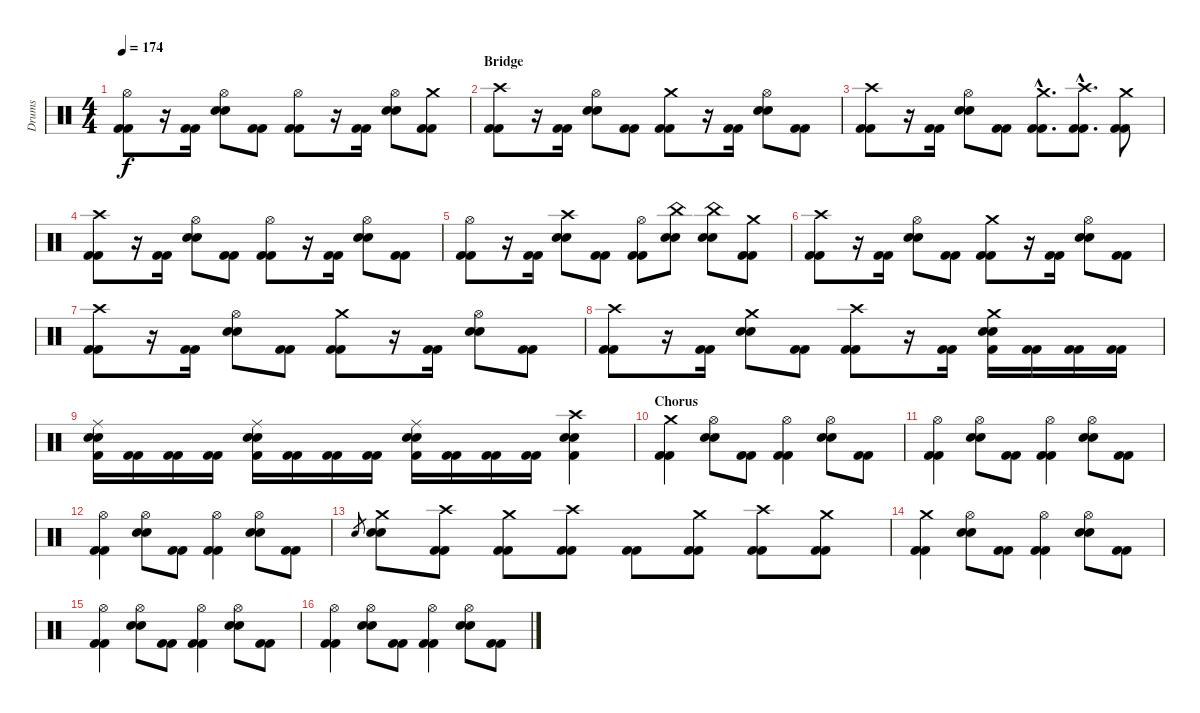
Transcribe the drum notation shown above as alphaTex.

\track ("Drums" "Drums") {instrument percussion}
\staff {score}
\articulation defaults
\ts (4 4)
\tempo 174
\clef neutral
\ks c
("Hi-Hat (open)" "Kick (hit) 2" "Kick (hit) 2").8{dy f} r.16 ("Kick (hit) 2" "Kick (hit) 2").16 ("Hi-Hat (open)" "Snare (hit) 2" "Snare (hit) 2").8 ("Kick (hit) 2" "Kick (hit) 2").8 ("Hi-Hat (open)" "Kick (hit) 2" "Kick (hit) 2").8 r.16 ("Kick (hit) 2" "Kick (hit) 2").16 ("Hi-Hat (open)" "Snare (hit) 2" "Snare (hit) 2").8 ("Crash medium (hit)" "Kick (hit) 2" "Kick (hit) 2").8 |
\section ("" "Bridge")
("Crash high (hit)" "Kick (hit) 2" "Kick (hit) 2").8 r.16 ("Kick (hit) 2" "Kick (hit) 2").16 ("Hi-Hat (open)" "Snare (hit) 2" "Snare (hit) 2").8 ("Kick (hit) 2" "Kick (hit) 2").8 ("Crash medium (hit)" "Kick (hit) 2" "Kick (hit) 2").8 r.16 ("Kick (hit) 2" "Kick (hit) 2").16 ("Hi-Hat (open)" "Snare (hit) 2" "Snare (hit) 2").8 ("Kick (hit) 2" "Kick (hit) 2").8 |
("Crash high (hit)" "Kick (hit) 2" "Kick (hit) 2").8 r.16 ("Kick (hit) 2" "Kick (hit) 2").16 ("Hi-Hat (open)" "Snare (hit) 2" "Snare (hit) 2").8 ("Kick (hit) 2" "Kick (hit) 2").8 ("Crash medium (hit)"{hac} "Kick (hit) 2"{hac} "Kick (hit) 2"{hac}).8{d} ("Crash high (hit)"{hac} "Kick (hit) 2"{hac} "Kick (hit) 2"{hac}).8{d} ("Crash medium (hit)" "Kick (hit) 2" "Kick (hit) 2").8 |
("Crash high (hit)" "Kick (hit) 2" "Kick (hit) 2").8 r.16 ("Kick (hit) 2" "Kick (hit) 2").16 ("Hi-Hat (open)" "Snare (hit) 2" "Snare (hit) 2").8 ("Kick (hit) 2" "Kick (hit) 2").8 ("Hi-Hat (open)" "Kick (hit) 2" "Kick (hit) 2").8 r.16 ("Kick (hit) 2" "Kick (hit) 2").16 ("Hi-Hat (open)" "Snare (hit) 2" "Snare (hit) 2").8 ("Kick (hit) 2" "Kick (hit) 2").8 |
("Hi-Hat (open)" "Kick (hit) 2" "Kick (hit) 2").8 r.16 ("Kick (hit) 2" "Kick (hit) 2").16 ("Crash high (hit)" "Snare (hit) 2" "Snare (hit) 2").8 ("Kick (hit) 2" "Kick (hit) 2").8 ("Hi-Hat (open)" "Kick (hit) 2" "Kick (hit) 2").8 ("China (hit)" "Snare (hit) 2" "Snare (hit) 2").8 ("China (hit)" "Snare (hit) 2" "Snare (hit) 2").8 ("Crash medium (hit)" "Kick (hit) 2" "Kick (hit) 2").8 |
("Crash high (hit)" "Kick (hit) 2" "Kick (hit) 2").8 r.16 ("Kick (hit) 2" "Kick (hit) 2").16 ("Hi-Hat (open)" "Snare (hit) 2" "Snare (hit) 2").8 ("Kick (hit) 2" "Kick (hit) 2").8 ("Crash medium (hit)" "Kick (hit) 2" "Kick (hit) 2").8 r.16 ("Kick (hit) 2" "Kick (hit) 2").16 ("Hi-Hat (open)" "Snare (hit) 2" "Snare (hit) 2").8 ("Kick (hit) 2" "Kick (hit) 2").8 |
("Crash high (hit)" "Kick (hit) 2" "Kick (hit) 2").8 r.16 ("Kick (hit) 2" "Kick (hit) 2").16 ("Hi-Hat (open)" "Snare (hit) 2" "Snare (hit) 2").8 ("Kick (hit) 2" "Kick (hit) 2").8 ("Crash medium (hit)" "Kick (hit) 2" "Kick (hit) 2").8 r.16 ("Kick (hit) 2" "Kick (hit) 2").16 ("Hi-Hat (open)" "Snare (hit) 2" "Snare (hit) 2").8 ("Kick (hit) 2" "Kick (hit) 2").8 |
("Crash high (hit)" "Kick (hit) 2" "Kick (hit) 2").8 r.16 ("Kick (hit) 2" "Kick (hit) 2").16 ("Crash medium (hit)" "Snare (hit) 2" "Snare (hit) 2").8 ("Kick (hit) 2" "Kick (hit) 2").8 ("Crash high (hit)" "Kick (hit) 2" "Kick (hit) 2").8 r.16 ("Kick (hit) 2" "Kick (hit) 2").16 ("Crash medium (hit)" "Snare (hit) 2" "Snare (hit) 2" "Kick (hit) 2").16 ("Kick (hit) 2" "Kick (hit) 2").16 ("Kick (hit) 2" "Kick (hit) 2").16 ("Kick (hit) 2" "Kick (hit) 2").16 |
("Ride (middle)" "Snare (hit) 2" "Snare (hit) 2" "Kick (hit) 2").16 ("Kick (hit) 2" "Kick (hit) 2").16 ("Kick (hit) 2" "Kick (hit) 2").16 ("Kick (hit) 2" "Kick (hit) 2").16 ("Ride (middle)" "Snare (hit) 2" "Snare (hit) 2" "Kick (hit) 2").16 ("Kick (hit) 2" "Kick (hit) 2").16 ("Kick (hit) 2" "Kick (hit) 2").16 ("Kick (hit) 2" "Kick (hit) 2").16 ("Ride (middle)" "Snare (hit) 2" "Snare (hit) 2" "Kick (hit) 2").16 ("Kick (hit) 2" "Kick (hit) 2").16 ("Kick (hit) 2" "Kick (hit) 2").16 ("Kick (hit) 2" "Kick (hit) 2").16 ("Crash high (hit)" "Snare (hit) 2" "Snare (hit) 2" "Kick (hit) 2").4 |
\section ("" "Chorus")
("Crash medium (hit)" "Kick (hit) 2" "Kick (hit) 2").4 ("Hi-Hat (open)" "Snare (hit) 2" "Snare (hit) 2").8 ("Kick (hit) 2" "Kick (hit) 2").8 ("Hi-Hat (open)" "Kick (hit) 2" "Kick (hit) 2").4 ("Hi-Hat (open)" "Snare (hit) 2" "Snare (hit) 2").8 ("Kick (hit) 2" "Kick (hit) 2").8 |
("Hi-Hat (open)" "Kick (hit) 2" "Kick (hit) 2").4 ("Hi-Hat (open)" "Snare (hit) 2" "Snare (hit) 2").8 ("Kick (hit) 2" "Kick (hit) 2").8 ("Hi-Hat (open)" "Kick (hit) 2" "Kick (hit) 2").4 ("Hi-Hat (open)" "Snare (hit) 2" "Snare (hit) 2").8 ("Kick (hit) 2" "Kick (hit) 2").8 |
("Hi-Hat (open)" "Kick (hit) 2" "Kick (hit) 2").4 ("Hi-Hat (open)" "Snare (hit) 2" "Snare (hit) 2").8 ("Kick (hit) 2" "Kick (hit) 2").8 ("Hi-Hat (open)" "Kick (hit) 2" "Kick (hit) 2").4 ("Hi-Hat (open)" "Snare (hit) 2" "Snare (hit) 2").8 ("Kick (hit) 2" "Kick (hit) 2").8 |
"Snare (hit) 2".8{gr} ("Crash medium (hit)" "Snare (hit) 2" "Snare (hit) 2").8 ("Crash high (hit)" "Kick (hit) 2" "Kick (hit) 2").8 ("Crash medium (hit)" "Kick (hit) 2" "Kick (hit) 2").8 ("Crash high (hit)" "Kick (hit) 2" "Kick (hit) 2").8 ("Kick (hit) 2" "Kick (hit) 2").8 ("Crash medium (hit)" "Kick (hit) 2" "Kick (hit) 2").8 ("Crash high (hit)" "Kick (hit) 2" "Kick (hit) 2").8 ("Crash medium (hit)" "Kick (hit) 2" "Kick (hit) 2").8 |
("Crash medium (hit)" "Kick (hit) 2" "Kick (hit) 2").4 ("Hi-Hat (open)" "Snare (hit) 2" "Snare (hit) 2").8 ("Kick (hit) 2" "Kick (hit) 2").8 ("Hi-Hat (open)" "Kick (hit) 2" "Kick (hit) 2").4 ("Hi-Hat (open)" "Snare (hit) 2" "Snare (hit) 2").8 ("Kick (hit) 2" "Kick (hit) 2").8 |
("Hi-Hat (open)" "Kick (hit) 2" "Kick (hit) 2").4 ("Hi-Hat (open)" "Snare (hit) 2" "Snare (hit) 2").8 ("Kick (hit) 2" "Kick (hit) 2").8 ("Hi-Hat (open)" "Kick (hit) 2" "Kick (hit) 2").4 ("Hi-Hat (open)" "Snare (hit) 2" "Snare (hit) 2").8 ("Kick (hit) 2" "Kick (hit) 2").8 |
("Hi-Hat (open)" "Kick (hit) 2" "Kick (hit) 2").4 ("Hi-Hat (open)" "Snare (hit) 2" "Snare (hit) 2").8 ("Kick (hit) 2" "Kick (hit) 2").8 ("Hi-Hat (open)" "Kick (hit) 2" "Kick (hit) 2").4 ("Hi-Hat (open)" "Snare (hit) 2" "Snare (hit) 2").8 ("Kick (hit) 2" "Kick (hit) 2").8
